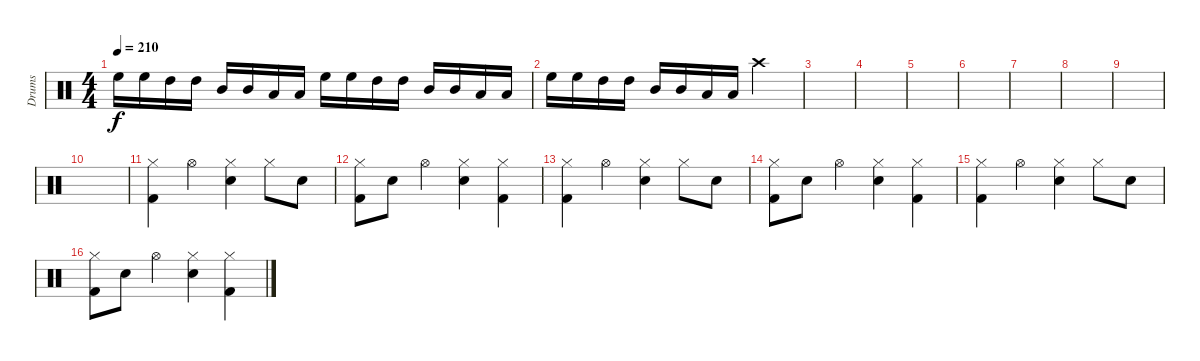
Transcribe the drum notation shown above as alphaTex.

\track ("Drums" "Drums") {instrument percussion}
\staff {score}
\articulation defaults
\ts (4 4)
\tempo 210
\clef neutral
\ks c "High Floor Tom (hit)".16{dy f} "High Floor Tom (hit)".16 "High Tom (hit)".16 "High Tom (hit)".16 "Mid Tom (hit)".16 "Mid Tom (hit)".16 "Low Tom (hit)".16 "Low Tom (hit)".16 "High Floor Tom (hit)".16 "High Floor Tom (hit)".16 "High Tom (hit)".16 "High Tom (hit)".16 "Mid Tom (hit)".16 "Mid Tom (hit)".16 "Low Tom (hit)".16 "Low Tom (hit)".16
|
"High Floor Tom (hit)".16 "High Floor Tom (hit)".16 "High Tom (hit)".16 "High Tom (hit)".16 "Mid Tom (hit)".16 "Mid Tom (hit)".16 "Low Tom (hit)".16 "Low Tom (hit)".16 "Crash high (hit)".2 |
|
|
|
|
|
|
|
|
("Hi-Hat (closed)" "Kick (hit) 2").4 "Hi-Hat (open)".4 ("Hi-Hat (closed)" "Electric Snare (hit)").4 "Hi-Hat (closed)".8 "Electric Snare (hit)".8 |
("Hi-Hat (closed)" "Kick (hit) 2").8 "Electric Snare (hit)".8 "Hi-Hat (open)".4 ("Hi-Hat (closed)" "Electric Snare (hit)").4 ("Hi-Hat (closed)" "Kick (hit) 2").4 |
("Hi-Hat (closed)" "Kick (hit) 2").4 "Hi-Hat (open)".4 ("Hi-Hat (closed)" "Electric Snare (hit)").4 "Hi-Hat (closed)".8 "Electric Snare (hit)".8 |
("Hi-Hat (closed)" "Kick (hit) 2").8 "Electric Snare (hit)".8 "Hi-Hat (open)".4 ("Hi-Hat (closed)" "Electric Snare (hit)").4 ("Hi-Hat (closed)" "Kick (hit) 2").4 |
("Hi-Hat (closed)" "Kick (hit) 2").4 "Hi-Hat (open)".4 ("Hi-Hat (closed)" "Electric Snare (hit)").4 "Hi-Hat (closed)".8 "Electric Snare (hit)".8 |
("Hi-Hat (closed)" "Kick (hit) 2").8 "Electric Snare (hit)".8 "Hi-Hat (open)".4 ("Hi-Hat (closed)" "Electric Snare (hit)").4 ("Hi-Hat (closed)" "Kick (hit) 2").4
